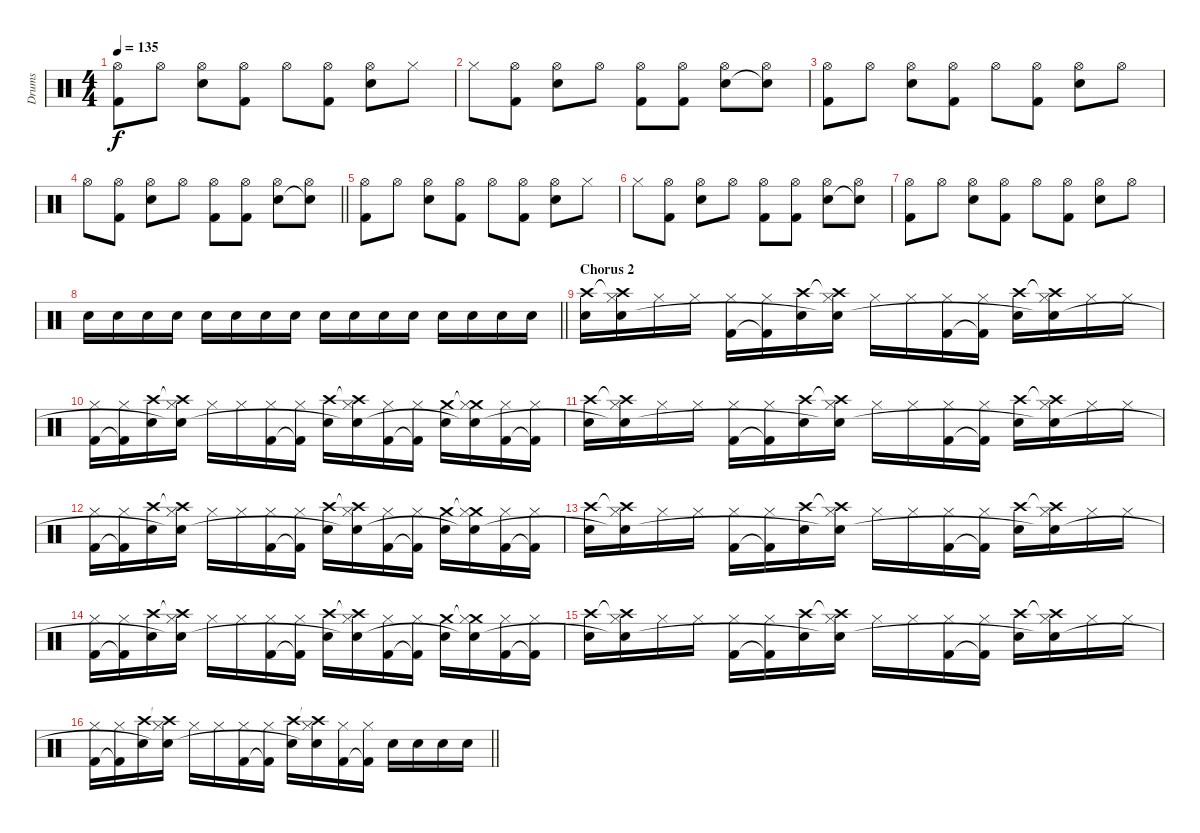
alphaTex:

\track ("Drums" "Drums") {instrument percussion}
\staff {score}
\articulation defaults
\ts (4 4)
\tempo 135
\clef neutral
\ks c
("Hi-Hat (open)" "Kick (hit) 2").8{dy f} "Hi-Hat (open)".8 ("Hi-Hat (open)" "Snare (hit) 2").8 ("Hi-Hat (open)" "Kick (hit) 2").8 "Hi-Hat (open)".8 ("Hi-Hat (open)" "Kick (hit) 2").8 ("Hi-Hat (open)" "Snare (hit) 2").8 "Hi-Hat (closed)".8 |
"Hi-Hat (closed)".8 ("Hi-Hat (open)" "Kick (hit) 2").8 ("Hi-Hat (open)" "Snare (hit) 2").8 "Hi-Hat (open)".8 ("Hi-Hat (open)" "Kick (hit) 2").8 ("Hi-Hat (open)" "Kick (hit) 2").8 ("Hi-Hat (open)" "Snare (hit) 2").8 ("Hi-Hat (open)" "Snare (hit) 2"{t}).8 |
("Hi-Hat (open)" "Kick (hit) 2").8 "Hi-Hat (open)".8 ("Hi-Hat (open)" "Snare (hit) 2").8 ("Hi-Hat (open)" "Kick (hit) 2").8 "Hi-Hat (open)".8 ("Hi-Hat (open)" "Kick (hit) 2").8 ("Hi-Hat (open)" "Snare (hit) 2").8 "Hi-Hat (open)".8 |
\barLineRight lightlight "Hi-Hat (open)".8
("Hi-Hat (open)" "Kick (hit) 2").8 ("Hi-Hat (open)" "Snare (hit) 2").8 "Hi-Hat (open)".8 ("Hi-Hat (open)" "Kick (hit) 2").8 ("Hi-Hat (open)" "Kick (hit) 2").8 ("Hi-Hat (open)" "Snare (hit) 2").8 ("Hi-Hat (open)" "Snare (hit) 2"{t}).8 |
("Hi-Hat (open)" "Kick (hit) 2").8 "Hi-Hat (open)".8 ("Hi-Hat (open)" "Snare (hit) 2").8 ("Hi-Hat (open)" "Kick (hit) 2").8 "Hi-Hat (open)".8 ("Hi-Hat (open)" "Kick (hit) 2").8 ("Hi-Hat (open)" "Snare (hit) 2").8 "Hi-Hat (closed)".8 |
"Hi-Hat (closed)".8 ("Hi-Hat (open)" "Kick (hit) 2").8 ("Hi-Hat (open)" "Snare (hit) 2").8 "Hi-Hat (open)".8 ("Hi-Hat (open)" "Kick (hit) 2").8 ("Hi-Hat (open)" "Kick (hit) 2").8 ("Hi-Hat (open)" "Snare (hit) 2").8 ("Hi-Hat (open)" "Snare (hit) 2"{t}).8 |
("Hi-Hat (open)" "Kick (hit) 2").8 "Hi-Hat (open)".8 ("Hi-Hat (open)" "Snare (hit) 2").8 ("Hi-Hat (open)" "Kick (hit) 2").8 "Hi-Hat (open)".8 ("Hi-Hat (open)" "Kick (hit) 2").8 ("Hi-Hat (open)" "Snare (hit) 2").8 "Hi-Hat (open)".8 |
\barLineRight lightlight "Snare (hit) 2".16 "Snare (hit) 2".16 "Snare (hit) 2".16 "Snare (hit) 2".16 "Snare (hit) 2".16 "Snare (hit) 2".16 "Snare (hit) 2".16 "Snare (hit) 2".16 "Snare (hit) 2".16 "Snare (hit) 2".16 "Snare (hit) 2".16 "Snare (hit) 2".16 "Snare (hit) 2".16 "Snare (hit) 2".16 "Snare (hit) 2".16 "Snare (hit) 2".16
|
\section ("" "Chorus 2")
("Crash high (hit)" "Snare (hit) 2").16 ("Crash high (hit)"{t} "Hi-Hat (closed)" "Snare (hit) 2").16 "Hi-Hat (closed)".16 "Hi-Hat (closed)".16 ("Hi-Hat (closed)" "Kick (hit) 2").16 ("Hi-Hat (closed)" "Kick (hit) 2"{t}).16 ("Crash high (hit)" "Snare (hit) 2").16 ("Crash high (hit)"{t} "Hi-Hat (closed)" "Snare (hit) 2"{t}).16 "Hi-Hat (closed)".16 "Hi-Hat (closed)".16 ("Hi-Hat (closed)" "Kick (hit) 2").16 ("Hi-Hat (closed)" "Kick (hit) 2"{t}).16 ("Crash high (hit)" "Snare (hit) 2").16 ("Crash high (hit)"{t} "Hi-Hat (closed)" "Snare (hit) 2"{t}).16 "Hi-Hat (closed)".16 "Hi-Hat (closed)".16 |
("Hi-Hat (closed)" "Kick (hit) 2").16 ("Hi-Hat (closed)" "Kick (hit) 2"{t}).16 ("Crash high (hit)" "Snare (hit) 2").16 ("Crash high (hit)"{t} "Hi-Hat (closed)" "Snare (hit) 2"{t}).16 "Hi-Hat (closed)".16 "Hi-Hat (closed)".16 ("Hi-Hat (closed)" "Kick (hit) 2").16 ("Hi-Hat (closed)" "Kick (hit) 2"{t}).16 ("Crash high (hit)" "Snare (hit) 2").16 ("Crash high (hit)"{t} "Hi-Hat (closed)" "Snare (hit) 2"{t}).16 ("Hi-Hat (closed)" "Kick (hit) 2").16 ("Hi-Hat (closed)" "Kick (hit) 2"{t}).16 ("Crash medium (hit)" "Snare (hit) 2").16 ("Crash medium (hit)"{t} "Hi-Hat (closed)" "Snare (hit) 2"{t}).16 ("Hi-Hat (closed)" "Kick (hit) 2").16 ("Hi-Hat (closed)" "Kick (hit) 2"{t}).16 |
("Crash high (hit)" "Snare (hit) 2").16 ("Crash high (hit)"{t} "Hi-Hat (closed)" "Snare (hit) 2"{t}).16 "Hi-Hat (closed)".16 "Hi-Hat (closed)".16 ("Hi-Hat (closed)" "Kick (hit) 2").16 ("Hi-Hat (closed)" "Kick (hit) 2"{t}).16 ("Crash high (hit)" "Snare (hit) 2").16 ("Crash high (hit)"{t} "Hi-Hat (closed)" "Snare (hit) 2"{t}).16 "Hi-Hat (closed)".16 "Hi-Hat (closed)".16 ("Hi-Hat (closed)" "Kick (hit) 2").16 ("Hi-Hat (closed)" "Kick (hit) 2"{t}).16 ("Crash high (hit)" "Snare (hit) 2").16 ("Crash high (hit)"{t} "Hi-Hat (closed)" "Snare (hit) 2"{t}).16 "Hi-Hat (closed)".16 "Hi-Hat (closed)".16 |
("Hi-Hat (closed)" "Kick (hit) 2").16 ("Hi-Hat (closed)" "Kick (hit) 2"{t}).16 ("Crash high (hit)" "Snare (hit) 2").16 ("Crash high (hit)"{t} "Hi-Hat (closed)" "Snare (hit) 2"{t}).16 "Hi-Hat (closed)".16 "Hi-Hat (closed)".16 ("Hi-Hat (closed)" "Kick (hit) 2").16 ("Hi-Hat (closed)" "Kick (hit) 2"{t}).16 ("Crash high (hit)" "Snare (hit) 2").16 ("Crash high (hit)"{t} "Hi-Hat (closed)" "Snare (hit) 2"{t}).16 ("Hi-Hat (closed)" "Kick (hit) 2").16 ("Hi-Hat (closed)" "Kick (hit) 2"{t}).16 ("Crash medium (hit)" "Snare (hit) 2").16 ("Crash medium (hit)"{t} "Hi-Hat (closed)" "Snare (hit) 2"{t}).16 ("Hi-Hat (closed)" "Kick (hit) 2").16 ("Hi-Hat (closed)" "Kick (hit) 2"{t}).16 |
("Crash high (hit)" "Snare (hit) 2").16 ("Crash high (hit)"{t} "Hi-Hat (closed)" "Snare (hit) 2"{t}).16 "Hi-Hat (closed)".16 "Hi-Hat (closed)".16 ("Hi-Hat (closed)" "Kick (hit) 2").16 ("Hi-Hat (closed)" "Kick (hit) 2"{t}).16 ("Crash high (hit)" "Snare (hit) 2").16 ("Crash high (hit)"{t} "Hi-Hat (closed)" "Snare (hit) 2"{t}).16 "Hi-Hat (closed)".16 "Hi-Hat (closed)".16 ("Hi-Hat (closed)" "Kick (hit) 2").16 ("Hi-Hat (closed)" "Kick (hit) 2"{t}).16 ("Crash high (hit)" "Snare (hit) 2").16 ("Crash high (hit)"{t} "Hi-Hat (closed)" "Snare (hit) 2"{t}).16 "Hi-Hat (closed)".16 "Hi-Hat (closed)".16 |
("Hi-Hat (closed)" "Kick (hit) 2").16 ("Hi-Hat (closed)" "Kick (hit) 2"{t}).16 ("Crash high (hit)" "Snare (hit) 2").16 ("Crash high (hit)"{t} "Hi-Hat (closed)" "Snare (hit) 2"{t}).16 "Hi-Hat (closed)".16 "Hi-Hat (closed)".16 ("Hi-Hat (closed)" "Kick (hit) 2").16 ("Hi-Hat (closed)" "Kick (hit) 2"{t}).16 ("Crash high (hit)" "Snare (hit) 2").16 ("Crash high (hit)"{t} "Hi-Hat (closed)" "Snare (hit) 2"{t}).16 ("Hi-Hat (closed)" "Kick (hit) 2").16 ("Hi-Hat (closed)" "Kick (hit) 2"{t}).16 ("Crash medium (hit)" "Snare (hit) 2").16 ("Crash medium (hit)"{t} "Hi-Hat (closed)" "Snare (hit) 2"{t}).16 ("Hi-Hat (closed)" "Kick (hit) 2").16 ("Hi-Hat (closed)" "Kick (hit) 2"{t}).16 |
("Crash high (hit)" "Snare (hit) 2").16 ("Crash high (hit)"{t} "Hi-Hat (closed)" "Snare (hit) 2"{t}).16 "Hi-Hat (closed)".16 "Hi-Hat (closed)".16 ("Hi-Hat (closed)" "Kick (hit) 2").16 ("Hi-Hat (closed)" "Kick (hit) 2"{t}).16 ("Crash high (hit)" "Snare (hit) 2").16 ("Crash high (hit)"{t} "Hi-Hat (closed)" "Snare (hit) 2"{t}).16 "Hi-Hat (closed)".16 "Hi-Hat (closed)".16 ("Hi-Hat (closed)" "Kick (hit) 2").16 ("Hi-Hat (closed)" "Kick (hit) 2"{t}).16 ("Crash high (hit)" "Snare (hit) 2").16 ("Crash high (hit)"{t} "Hi-Hat (closed)" "Snare (hit) 2"{t}).16 "Hi-Hat (closed)".16 "Hi-Hat (closed)".16 |
\barLineRight lightlight
("Hi-Hat (closed)" "Kick (hit) 2").16 ("Hi-Hat (closed)" "Kick (hit) 2"{t}).16 ("Crash high (hit)" "Snare (hit) 2").16 ("Crash high (hit)"{t} "Hi-Hat (closed)" "Snare (hit) 2"{t}).16 "Hi-Hat (closed)".16 "Hi-Hat (closed)".16 ("Hi-Hat (closed)" "Kick (hit) 2").16 ("Hi-Hat (closed)" "Kick (hit) 2"{t}).16 ("Crash high (hit)" "Snare (hit) 2").16 ("Crash high (hit)"{t} "Hi-Hat (closed)" "Snare (hit) 2"{t}).16 ("Hi-Hat (closed)" "Kick (hit) 2").16 ("Hi-Hat (closed)" "Kick (hit) 2"{t}).16 "Snare (hit) 2".16 "Snare (hit) 2".16 "Snare (hit) 2".16 "Snare (hit) 2".16
